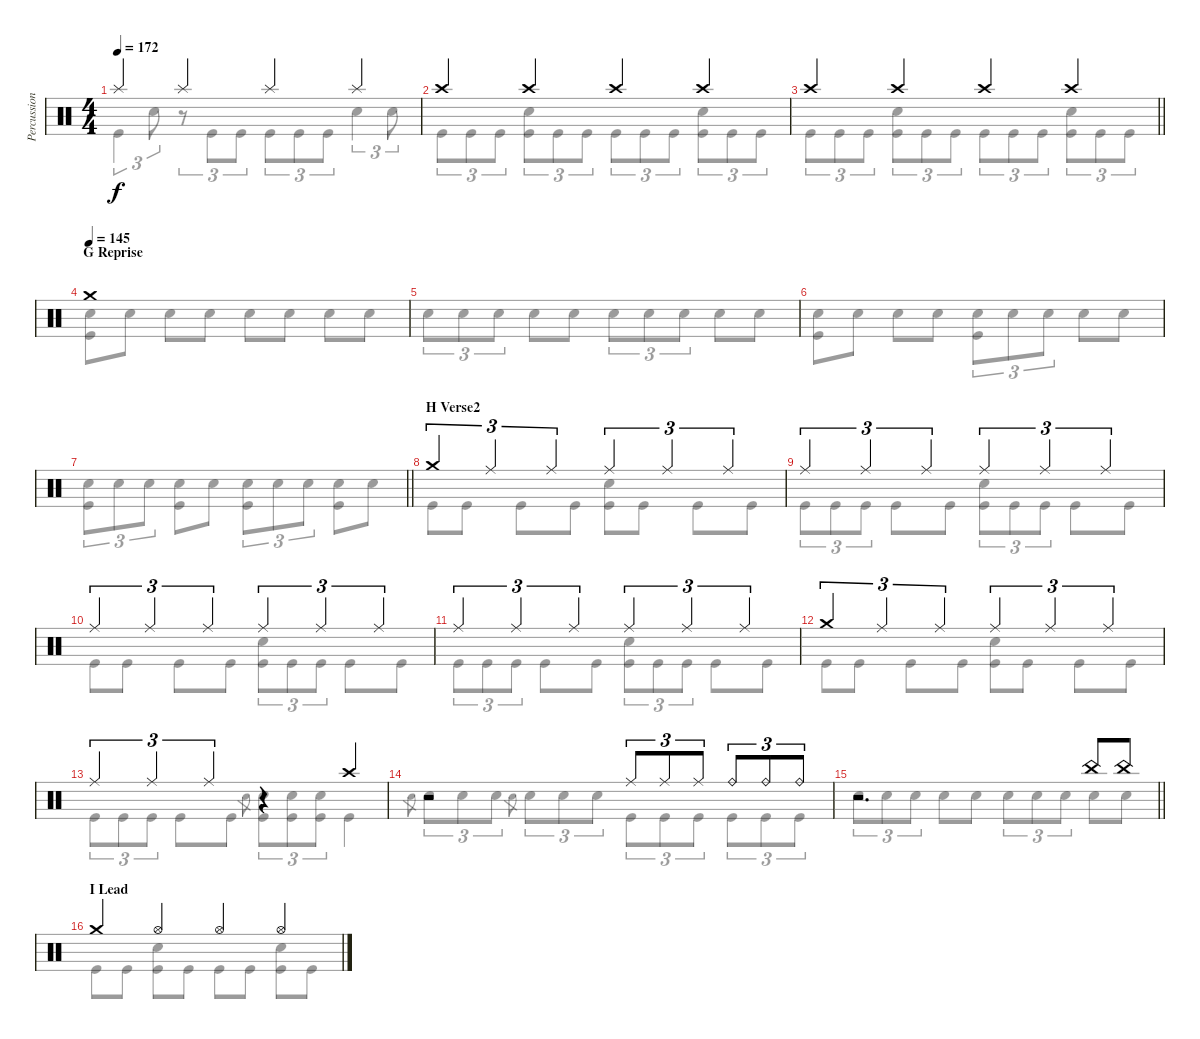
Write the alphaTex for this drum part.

\track ("Percussions" "Percussion") {instrument percussion}
\staff {score}
\articulation defaults
\voice
\ts (4 4)
\tempo 172
\clef neutral
\ks c "Splash (hit)".4{dy f} "Splash (hit)".4 "Splash (hit)".4 "Splash (hit)".4
|
"Crash high (hit)".4 "Crash high (hit)".4 "Crash high (hit)".4 "Crash high (hit)".4 |
\barLineRight lightlight "Crash high (hit)".4 "Crash high (hit)".4 "Crash high (hit)".4 "Crash high (hit)".4
|
\section ("" "G Reprise")
\tempo (145)
"Crash medium (hit)".1 |
|
|
\barLineRight lightlight
|
\section ("" "H Verse2")
"Crash medium (hit)".4{tu (3 2)} "Ride (middle)".4{tu (3 2)} "Ride (middle)".4{tu (3 2)} "Ride (middle)".4{tu (3 2)} "Ride (middle)".4{tu (3 2)} "Ride (middle)".4{tu (3 2)} |
"Ride (middle)".4{tu (3 2)} "Ride (middle)".4{tu (3 2)} "Ride (middle)".4{tu (3 2)} "Ride (middle)".4{tu (3 2)} "Ride (middle)".4{tu (3 2)} "Ride (middle)".4{tu (3 2)} |
"Ride (middle)".4{tu (3 2)} "Ride (middle)".4{tu (3 2)} "Ride (middle)".4{tu (3 2)} "Ride (middle)".4{tu (3 2)} "Ride (middle)".4{tu (3 2)} "Ride (middle)".4{tu (3 2)} |
"Ride (middle)".4{tu (3 2)} "Ride (middle)".4{tu (3 2)} "Ride (middle)".4{tu (3 2)} "Ride (middle)".4{tu (3 2)} "Ride (middle)".4{tu (3 2)} "Ride (middle)".4{tu (3 2)} |
"Crash medium (hit)".4{tu (3 2)} "Ride (middle)".4{tu (3 2)} "Ride (middle)".4{tu (3 2)} "Ride (middle)".4{tu (3 2)} "Ride (middle)".4{tu (3 2)} "Ride (middle)".4{tu (3 2)} |
"Ride (middle)".4{tu (3 2)} "Ride (middle)".4{tu (3 2)} "Ride (middle)".4{tu (3 2)} r.4 "Crash high (hit)".4 |
r.2 "Ride (middle)".8{tu (3 2)} "Ride (middle)".8{tu (3 2)} "Ride (middle)".8{tu (3 2)} "Ride (bell)".8{tu (3 2)} "Ride (bell)".8{tu (3 2)} "Ride (bell)".8{tu (3 2)} |
\barLineRight lightlight
r.2{d} "China (hit)".8 "China (hit)".8 |
\section ("" "I Lead")
"Crash medium (hit)".4 "Hi-Hat (open)".4 "Hi-Hat (open)".4 "Hi-Hat (open)".4
\voice
\clef neutral
\ottava regular
\simile none
\ks c "Kick (hit)".4{tu (3 2) dy f} "Snare (hit) 2".8{tu (3 2)}
r.8{tu (3 2)} "Kick (hit)".8{tu (3 2)} "Kick (hit)".8{tu (3 2)} "Kick (hit)".8{tu (3 2)} "Kick (hit)".8{tu (3 2)} "Kick (hit)".8{tu (3 2)} "Snare (hit) 2".4{tu (3 2)} "Snare (hit) 2".8{tu (3 2)} |
"Kick (hit)".8{tu (3 2)} "Kick (hit)".8{tu (3 2)} "Kick (hit)".8{tu (3 2)} ("Snare (hit) 2" "Kick (hit)").8{tu (3 2)} "Kick (hit)".8{tu (3 2)} "Kick (hit)".8{tu (3 2)} "Kick (hit)".8{tu (3 2)} "Kick (hit)".8{tu (3 2)} "Kick (hit)".8{tu (3 2)} ("Snare (hit) 2" "Kick (hit)").8{tu (3 2)} "Kick (hit)".8{tu (3 2)} "Kick (hit)".8{tu (3 2)} |
\barLineRight lightlight "Kick (hit)".8{tu (3 2)} "Kick (hit)".8{tu (3 2)} "Kick (hit)".8{tu (3 2)}
("Snare (hit) 2" "Kick (hit)").8{tu (3 2)} "Kick (hit)".8{tu (3 2)} "Kick (hit)".8{tu (3 2)} "Kick (hit)".8{tu (3 2)} "Kick (hit)".8{tu (3 2)} "Kick (hit)".8{tu (3 2)} ("Snare (hit) 2" "Kick (hit)").8{tu (3 2)} "Kick (hit)".8{tu (3 2)} "Kick (hit)".8{tu (3 2)} |
("Snare (hit) 2" "Kick (hit)").8 "Snare (hit) 2".8 "Snare (hit) 2".8 "Snare (hit) 2".8 "Snare (hit) 2".8 "Snare (hit) 2".8 "Snare (hit) 2".8 "Snare (hit) 2".8 |
"Snare (hit) 2".8{tu (3 2)} "Snare (hit) 2".8{tu (3 2)} "Snare (hit) 2".8{tu (3 2)} "Snare (hit) 2".8 "Snare (hit) 2".8 "Snare (hit) 2".8{tu (3 2)} "Snare (hit) 2".8{tu (3 2)} "Snare (hit) 2".8{tu (3 2)} "Snare (hit) 2".8 "Snare (hit) 2".8 |
("Snare (hit) 2" "Kick (hit)").8 "Snare (hit) 2".8 "Snare (hit) 2".8 "Snare (hit) 2".8 ("Snare (hit) 2" "Kick (hit)").8{tu (3 2)} "Snare (hit) 2".8{tu (3 2)} "Snare (hit) 2".8{tu (3 2)} "Snare (hit) 2".8 "Snare (hit) 2".8 |
\barLineRight lightlight
("Snare (hit) 2" "Kick (hit)").8{tu (3 2)} "Snare (hit) 2".8{tu (3 2)} "Snare (hit) 2".8{tu (3 2)} ("Snare (hit) 2" "Kick (hit)").8 "Snare (hit) 2".8 ("Snare (hit) 2" "Kick (hit)").8{tu (3 2)} "Snare (hit) 2".8{tu (3 2)} "Snare (hit) 2".8{tu (3 2)} ("Snare (hit) 2" "Kick (hit)").8 "Snare (hit) 2".8 |
"Kick (hit)".8 "Kick (hit)".8 "Kick (hit)".8 "Kick (hit)".8 ("Snare (hit) 2" "Kick (hit)").8 "Kick (hit)".8 "Kick (hit)".8 "Kick (hit)".8 |
"Kick (hit)".8{tu (3 2)} "Kick (hit)".8{tu (3 2)} "Kick (hit)".8{tu (3 2)} "Kick (hit)".8 "Kick (hit)".8 ("Snare (hit) 2" "Kick (hit)").8{tu (3 2)} "Kick (hit)".8{tu (3 2)} "Kick (hit)".8{tu (3 2)} "Kick (hit)".8 "Kick (hit)".8 |
"Kick (hit)".8 "Kick (hit)".8 "Kick (hit)".8 "Kick (hit)".8 ("Snare (hit) 2" "Kick (hit)").8{tu (3 2)} "Kick (hit)".8{tu (3 2)} "Kick (hit)".8{tu (3 2)} "Kick (hit)".8 "Kick (hit)".8 |
"Kick (hit)".8{tu (3 2)} "Kick (hit)".8{tu (3 2)} "Kick (hit)".8{tu (3 2)} "Kick (hit)".8 "Kick (hit)".8 ("Snare (hit) 2" "Kick (hit)").8{tu (3 2)} "Kick (hit)".8{tu (3 2)} "Kick (hit)".8{tu (3 2)} "Kick (hit)".8 "Kick (hit)".8 |
"Kick (hit)".8 "Kick (hit)".8 "Kick (hit)".8 "Kick (hit)".8 ("Snare (hit) 2" "Kick (hit)").8 "Kick (hit)".8 "Kick (hit)".8 "Kick (hit)".8 |
"Kick (hit)".8{tu (3 2)} "Kick (hit)".8{tu (3 2)} "Kick (hit)".8{tu (3 2)} "Kick (hit)".8 "Kick (hit)".8 "Snare (hit) 2".8{gr} ("Snare (hit) 2" "Kick (hit)").8{tu (3 2)} ("Snare (hit) 2" "Kick (hit)").8{tu (3 2)} ("Snare (hit) 2" "Kick (hit)").8{tu (3 2)} "Kick (hit)".4 |
"Snare (hit) 2".8{gr} "Snare (hit) 2".8{tu (3 2)} "Snare (hit) 2".8{tu (3 2)} "Snare (hit) 2".8{tu (3 2)} "Snare (hit) 2".8{gr} "Snare (hit) 2".8{tu (3 2)} "Snare (hit) 2".8{tu (3 2)} "Snare (hit) 2".8{tu (3 2)} "Kick (hit)".8{tu (3 2)} "Kick (hit)".8{tu (3 2)} "Kick (hit)".8{tu (3 2)} "Kick (hit)".8{tu (3 2)} "Kick (hit)".8{tu (3 2)} "Kick (hit)".8{tu (3 2)} |
\barLineRight lightlight "Snare (hit) 2".8{tu (3 2)} "Snare (hit) 2".8{tu (3 2)} "Snare (hit) 2".8{tu (3 2)} "Snare (hit) 2".8 "Snare (hit) 2".8 "Snare (hit) 2".8{tu (3 2)} "Snare (hit) 2".8{tu (3 2)} "Snare (hit) 2".8{tu (3 2)} "Snare (hit) 2".8 "Snare (hit) 2".8
|
"Kick (hit)".8 "Kick (hit)".8 ("Snare (hit) 2" "Kick (hit)").8 "Kick (hit)".8 "Kick (hit)".8 "Kick (hit)".8 ("Snare (hit) 2" "Kick (hit)").8 "Kick (hit)".8
